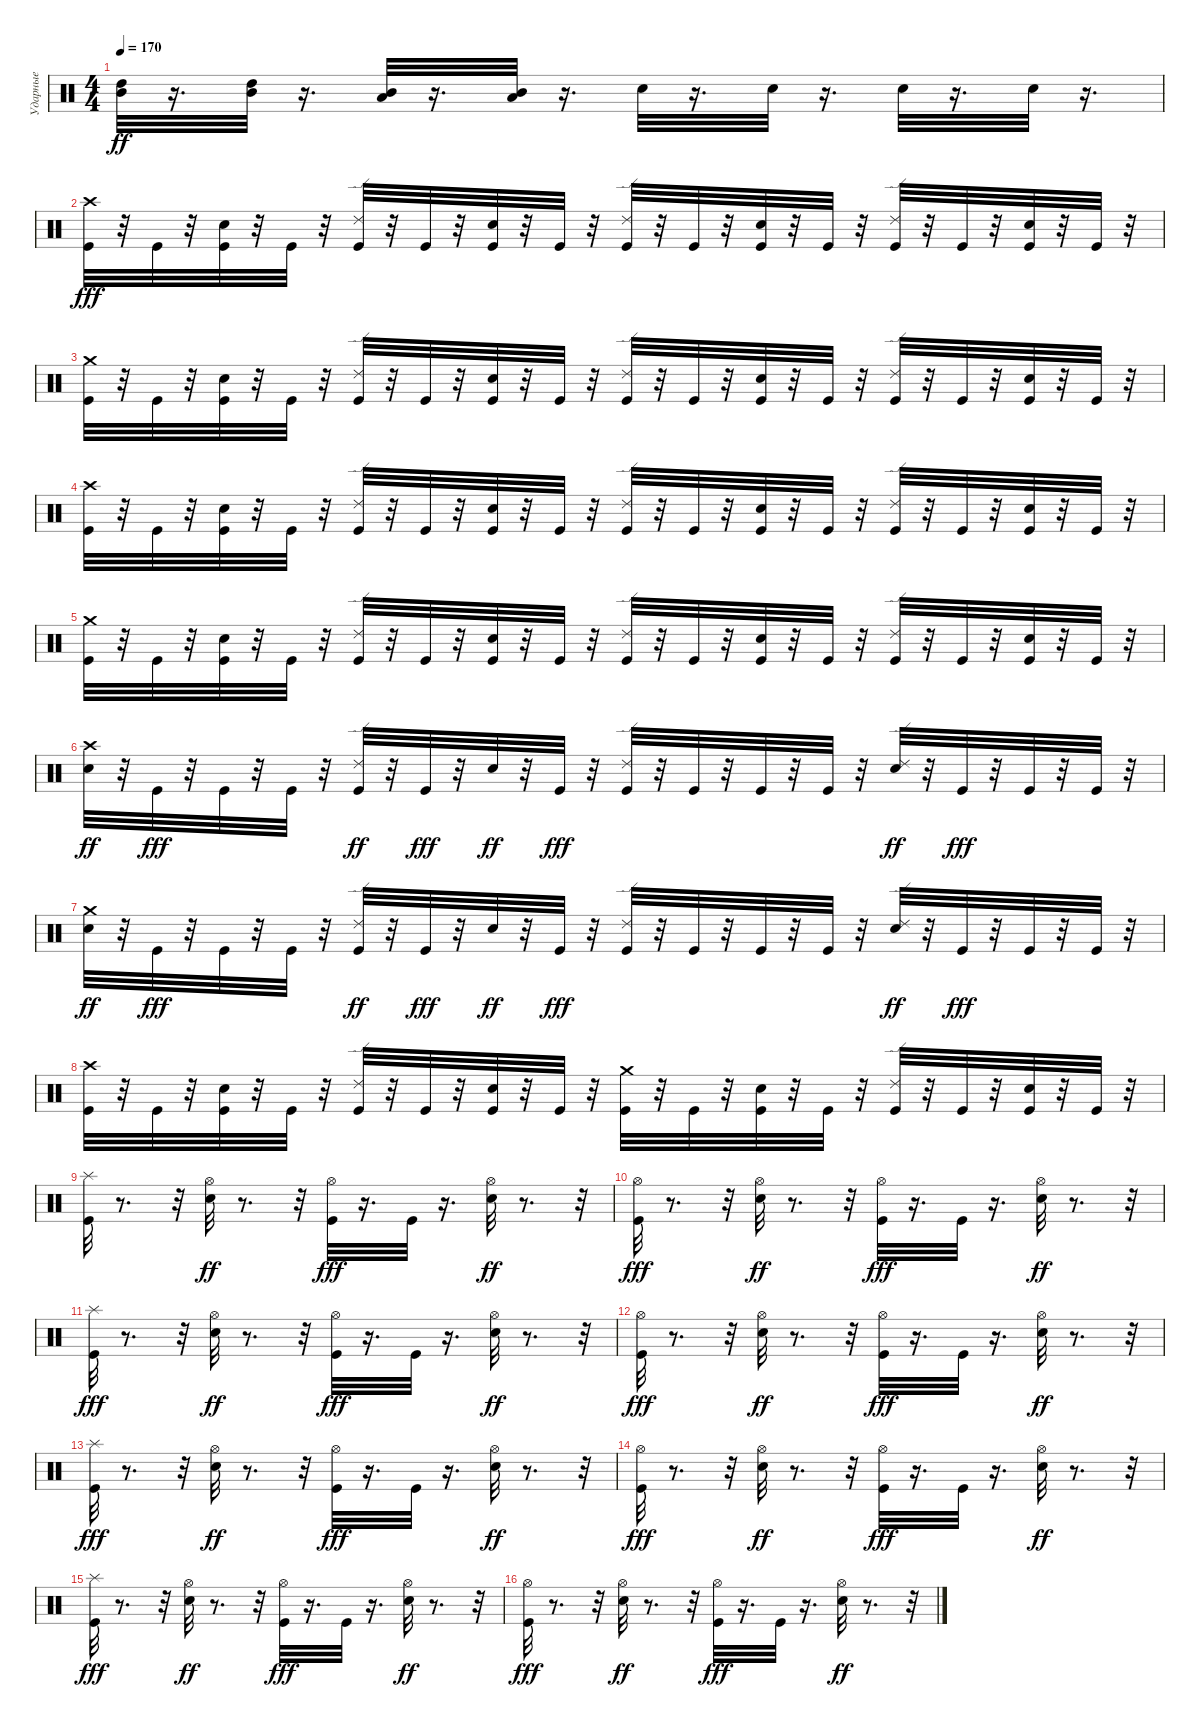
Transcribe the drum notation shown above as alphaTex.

\track ("Ударные" "Ударные") {instrument percussion}
\staff {score}
\articulation defaults
\ts (4 4)
\tempo 170
\clef neutral
\ks c
("Mid Tom (hit)" "High Tom (hit)").32{dy ff} r.16{d} ("Mid Tom (hit)" "High Tom (hit)").32 r.16{d} ("Low Tom (hit)" "Mid Tom (hit)").32 r.16{d} ("Low Tom (hit)" "Mid Tom (hit)").32 r.16{d} "Snare (hit) 2".32 r.16{d} "Snare (hit) 2".32 r.16{d} "Snare (hit) 2".32 r.16{d} "Snare (hit) 2".32 r.16{d} |
("Crash high (hit)" "Kick (hit)").32{dy fff} r.32 "Kick (hit)".32 r.32 ("Snare (hit) 2" "Kick (hit)").32 r.32 "Kick (hit)".32 r.32 ("Ride (edge) 2" "Kick (hit)").32 r.32 "Kick (hit)".32 r.32 ("Snare (hit) 2" "Kick (hit)").32 r.32 "Kick (hit)".32 r.32 ("Ride (edge) 2" "Kick (hit)").32 r.32 "Kick (hit)".32 r.32 ("Snare (hit) 2" "Kick (hit)").32 r.32 "Kick (hit)".32 r.32 ("Ride (edge) 2" "Kick (hit)").32 r.32 "Kick (hit)".32 r.32 ("Snare (hit) 2" "Kick (hit)").32 r.32 "Kick (hit)".32 r.32 |
("Crash medium (hit)" "Kick (hit)").32 r.32 "Kick (hit)".32 r.32 ("Snare (hit) 2" "Kick (hit)").32 r.32 "Kick (hit)".32 r.32 ("Ride (edge) 2" "Kick (hit)").32 r.32 "Kick (hit)".32 r.32 ("Snare (hit) 2" "Kick (hit)").32 r.32 "Kick (hit)".32 r.32 ("Ride (edge) 2" "Kick (hit)").32 r.32 "Kick (hit)".32 r.32 ("Snare (hit) 2" "Kick (hit)").32 r.32 "Kick (hit)".32 r.32 ("Ride (edge) 2" "Kick (hit)").32 r.32 "Kick (hit)".32 r.32 ("Snare (hit) 2" "Kick (hit)").32 r.32 "Kick (hit)".32 r.32 |
("Crash high (hit)" "Kick (hit)").32 r.32 "Kick (hit)".32 r.32 ("Snare (hit) 2" "Kick (hit)").32 r.32 "Kick (hit)".32 r.32 ("Ride (edge) 2" "Kick (hit)").32 r.32 "Kick (hit)".32 r.32 ("Snare (hit) 2" "Kick (hit)").32 r.32 "Kick (hit)".32 r.32 ("Ride (edge) 2" "Kick (hit)").32 r.32 "Kick (hit)".32 r.32 ("Snare (hit) 2" "Kick (hit)").32 r.32 "Kick (hit)".32 r.32 ("Ride (edge) 2" "Kick (hit)").32 r.32 "Kick (hit)".32 r.32 ("Snare (hit) 2" "Kick (hit)").32 r.32 "Kick (hit)".32 r.32 |
("Crash medium (hit)" "Kick (hit)").32 r.32 "Kick (hit)".32 r.32 ("Snare (hit) 2" "Kick (hit)").32 r.32 "Kick (hit)".32 r.32 ("Ride (edge) 2" "Kick (hit)").32 r.32 "Kick (hit)".32 r.32 ("Snare (hit) 2" "Kick (hit)").32 r.32 "Kick (hit)".32 r.32 ("Ride (edge) 2" "Kick (hit)").32 r.32 "Kick (hit)".32 r.32 ("Snare (hit) 2" "Kick (hit)").32 r.32 "Kick (hit)".32 r.32 ("Ride (edge) 2" "Kick (hit)").32 r.32 "Kick (hit)".32 r.32 ("Snare (hit) 2" "Kick (hit)").32 r.32 "Kick (hit)".32 r.32 |
("Crash high (hit)" "Snare (hit) 2").32{dy ff} r.32 "Kick (hit)".32{dy fff} r.32 "Kick (hit)".32 r.32 "Kick (hit)".32 r.32 ("Kick (hit)" "Ride (edge) 2").32{dy ff} r.32 "Kick (hit)".32{dy fff} r.32 "Snare (hit) 2".32{dy ff} r.32 "Kick (hit)".32{dy fff} r.32 ("Ride (edge) 2" "Kick (hit)").32 r.32 "Kick (hit)".32 r.32 "Kick (hit)".32 r.32 "Kick (hit)".32 r.32 ("Ride (edge) 2" "Snare (hit) 2").32{dy ff} r.32 "Kick (hit)".32{dy fff} r.32 "Kick (hit)".32 r.32 "Kick (hit)".32 r.32 |
("Crash medium (hit)" "Snare (hit) 2").32{dy ff} r.32 "Kick (hit)".32{dy fff} r.32 "Kick (hit)".32 r.32 "Kick (hit)".32 r.32 ("Kick (hit)" "Ride (edge) 2").32{dy ff} r.32 "Kick (hit)".32{dy fff} r.32 "Snare (hit) 2".32{dy ff} r.32 "Kick (hit)".32{dy fff} r.32 ("Ride (edge) 2" "Kick (hit)").32 r.32 "Kick (hit)".32 r.32 "Kick (hit)".32 r.32 "Kick (hit)".32 r.32 ("Ride (edge) 2" "Snare (hit) 2").32{dy ff} r.32 "Kick (hit)".32{dy fff} r.32 "Kick (hit)".32 r.32 "Kick (hit)".32 r.32 |
("Crash high (hit)" "Kick (hit)").32 r.32 "Kick (hit)".32 r.32 ("Snare (hit) 2" "Kick (hit)").32 r.32 "Kick (hit)".32 r.32 ("Ride (edge) 2" "Kick (hit)").32 r.32 "Kick (hit)".32 r.32 ("Snare (hit) 2" "Kick (hit)").32 r.32 "Kick (hit)".32 r.32 ("Crash medium (hit)" "Kick (hit)").32 r.32 "Kick (hit)".32 r.32 ("Snare (hit) 2" "Kick (hit)").32 r.32 "Kick (hit)".32 r.32 ("Ride (edge) 2" "Kick (hit)").32 r.32 "Kick (hit)".32 r.32 ("Snare (hit) 2" "Kick (hit)").32 r.32 "Kick (hit)".32 r.32 |
("Splash (hit)" "Kick (hit)").32 r.8{d} r.32 ("Hi-Hat (open)" "Snare (hit) 2").32{dy ff} r.8{d} r.32 ("Hi-Hat (open)" "Kick (hit)").32{dy fff} r.16{d} "Kick (hit)".32 r.16{d} ("Hi-Hat (open)" "Snare (hit) 2").32{dy ff} r.8{d} r.32 |
("Kick (hit)" "Hi-Hat (open)").32{dy fff} r.8{d} r.32 ("Snare (hit) 2" "Hi-Hat (open)").32{dy ff} r.8{d} r.32 ("Kick (hit)" "Hi-Hat (open)").32{dy fff} r.16{d} "Kick (hit)".32 r.16{d} ("Hi-Hat (open)" "Snare (hit) 2").32{dy ff} r.8{d} r.32 |
("Splash (hit)" "Kick (hit)").32{dy fff} r.8{d} r.32 ("Hi-Hat (open)" "Snare (hit) 2").32{dy ff} r.8{d} r.32 ("Hi-Hat (open)" "Kick (hit)").32{dy fff} r.16{d} "Kick (hit)".32 r.16{d} ("Hi-Hat (open)" "Snare (hit) 2").32{dy ff} r.8{d} r.32 |
("Kick (hit)" "Hi-Hat (open)").32{dy fff} r.8{d} r.32 ("Snare (hit) 2" "Hi-Hat (open)").32{dy ff} r.8{d} r.32 ("Kick (hit)" "Hi-Hat (open)").32{dy fff} r.16{d} "Kick (hit)".32 r.16{d} ("Hi-Hat (open)" "Snare (hit) 2").32{dy ff} r.8{d} r.32 |
("Splash (hit)" "Kick (hit)").32{dy fff} r.8{d} r.32 ("Hi-Hat (open)" "Snare (hit) 2").32{dy ff} r.8{d} r.32 ("Hi-Hat (open)" "Kick (hit)").32{dy fff} r.16{d} "Kick (hit)".32 r.16{d} ("Hi-Hat (open)" "Snare (hit) 2").32{dy ff} r.8{d} r.32 |
("Kick (hit)" "Hi-Hat (open)").32{dy fff} r.8{d} r.32 ("Snare (hit) 2" "Hi-Hat (open)").32{dy ff} r.8{d} r.32 ("Kick (hit)" "Hi-Hat (open)").32{dy fff} r.16{d} "Kick (hit)".32 r.16{d} ("Hi-Hat (open)" "Snare (hit) 2").32{dy ff} r.8{d} r.32 |
("Splash (hit)" "Kick (hit)").32{dy fff} r.8{d} r.32 ("Hi-Hat (open)" "Snare (hit) 2").32{dy ff} r.8{d} r.32 ("Hi-Hat (open)" "Kick (hit)").32{dy fff} r.16{d} "Kick (hit)".32 r.16{d} ("Hi-Hat (open)" "Snare (hit) 2").32{dy ff} r.8{d} r.32 |
("Kick (hit)" "Hi-Hat (open)").32{dy fff} r.8{d} r.32 ("Snare (hit) 2" "Hi-Hat (open)").32{dy ff} r.8{d} r.32 ("Kick (hit)" "Hi-Hat (open)").32{dy fff} r.16{d} "Kick (hit)".32 r.16{d} ("Hi-Hat (open)" "Snare (hit) 2").32{dy ff} r.8{d} r.32
